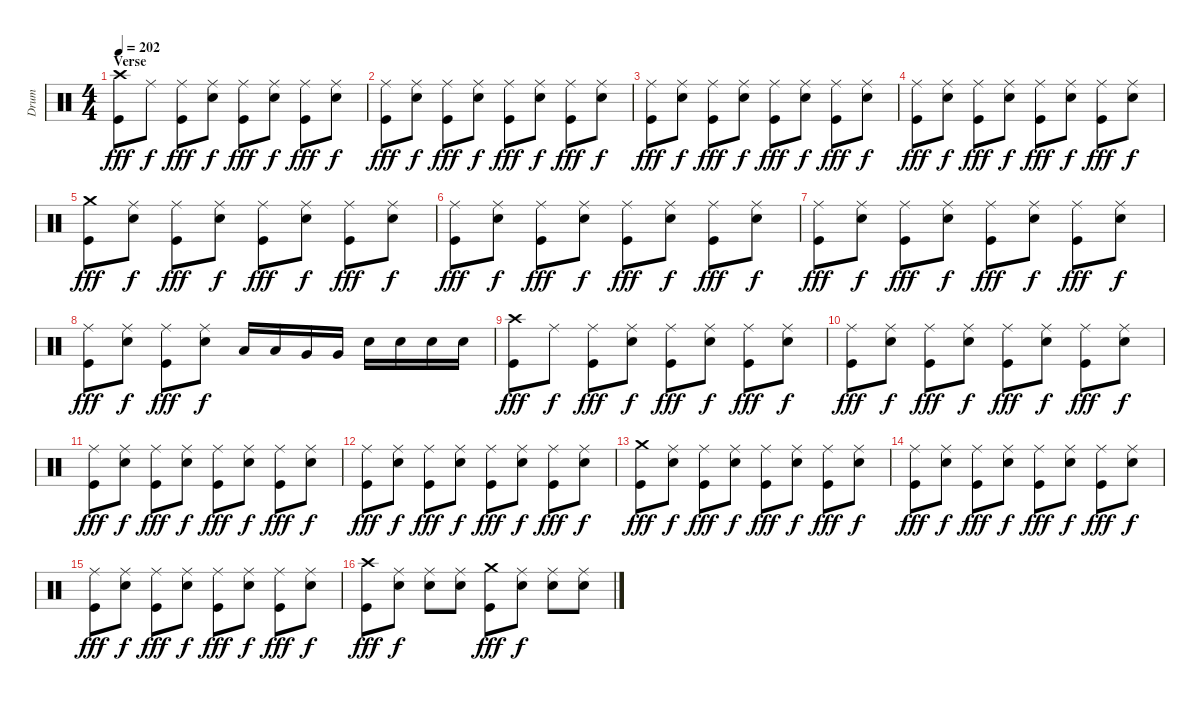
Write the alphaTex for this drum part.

\track ("Drum" "Drum") {instrument percussion}
\staff {score}
\articulation defaults
\ts (4 4)
\section ("" "Verse")
\tempo 202
\clef neutral
\ks c
("Crash high (hit)" "Kick (hit)").8{dy fff} "Ride (middle)".8{dy f} ("Ride (middle)" "Kick (hit)").8{dy fff} ("Ride (middle)" "Electric Snare (hit)").8{dy f} ("Ride (middle)" "Kick (hit)").8{dy fff} ("Ride (middle)" "Electric Snare (hit)").8{dy f} ("Ride (middle)" "Kick (hit)").8{dy fff} ("Ride (middle)" "Electric Snare (hit)").8{dy f} |
("Ride (middle)" "Kick (hit)").8{dy fff} ("Ride (middle)" "Electric Snare (hit)").8{dy f} ("Ride (middle)" "Kick (hit)").8{dy fff} ("Ride (middle)" "Electric Snare (hit)").8{dy f} ("Ride (middle)" "Kick (hit)").8{dy fff} ("Ride (middle)" "Electric Snare (hit)").8{dy f} ("Ride (middle)" "Kick (hit)").8{dy fff} ("Ride (middle)" "Electric Snare (hit)").8{dy f} |
("Ride (middle)" "Kick (hit)").8{dy fff} ("Ride (middle)" "Electric Snare (hit)").8{dy f} ("Ride (middle)" "Kick (hit)").8{dy fff} ("Ride (middle)" "Electric Snare (hit)").8{dy f} ("Ride (middle)" "Kick (hit)").8{dy fff} ("Ride (middle)" "Electric Snare (hit)").8{dy f} ("Ride (middle)" "Kick (hit)").8{dy fff} ("Ride (middle)" "Electric Snare (hit)").8{dy f} |
("Ride (middle)" "Kick (hit)").8{dy fff} ("Ride (middle)" "Electric Snare (hit)").8{dy f} ("Ride (middle)" "Kick (hit)").8{dy fff} ("Ride (middle)" "Electric Snare (hit)").8{dy f} ("Ride (middle)" "Kick (hit)").8{dy fff} ("Ride (middle)" "Electric Snare (hit)").8{dy f} ("Ride (middle)" "Kick (hit)").8{dy fff} ("Ride (middle)" "Electric Snare (hit)").8{dy f} |
("Crash medium (hit)" "Kick (hit)").8{dy fff} ("Ride (middle)" "Electric Snare (hit)").8{dy f} ("Ride (middle)" "Kick (hit)").8{dy fff} ("Ride (middle)" "Electric Snare (hit)").8{dy f} ("Ride (middle)" "Kick (hit)").8{dy fff} ("Ride (middle)" "Electric Snare (hit)").8{dy f} ("Ride (middle)" "Kick (hit)").8{dy fff} ("Ride (middle)" "Electric Snare (hit)").8{dy f} |
("Ride (middle)" "Kick (hit)").8{dy fff} ("Ride (middle)" "Electric Snare (hit)").8{dy f} ("Ride (middle)" "Kick (hit)").8{dy fff} ("Ride (middle)" "Electric Snare (hit)").8{dy f} ("Ride (middle)" "Kick (hit)").8{dy fff} ("Ride (middle)" "Electric Snare (hit)").8{dy f} ("Ride (middle)" "Kick (hit)").8{dy fff} ("Ride (middle)" "Electric Snare (hit)").8{dy f} |
("Ride (middle)" "Kick (hit)").8{dy fff} ("Ride (middle)" "Electric Snare (hit)").8{dy f} ("Ride (middle)" "Kick (hit)").8{dy fff} ("Ride (middle)" "Electric Snare (hit)").8{dy f} ("Ride (middle)" "Kick (hit)").8{dy fff} ("Ride (middle)" "Electric Snare (hit)").8{dy f} ("Ride (middle)" "Kick (hit)").8{dy fff} ("Ride (middle)" "Electric Snare (hit)").8{dy f} |
("Ride (middle)" "Kick (hit)").8{dy fff} ("Ride (middle)" "Electric Snare (hit)").8{dy f} ("Ride (middle)" "Kick (hit)").8{dy fff} ("Ride (middle)" "Electric Snare (hit)").8{dy f} "Low Tom (hit)".16 "Low Tom (hit)".16 "Very Low Tom (hit)".16 "Very Low Tom (hit)".16 "Electric Snare (hit)".16 "Electric Snare (hit)".16 "Electric Snare (hit)".16 "Electric Snare (hit)".16 |
("Crash high (hit)" "Kick (hit)").8{dy fff} "Ride (middle)".8{dy f} ("Ride (middle)" "Kick (hit)").8{dy fff} ("Ride (middle)" "Electric Snare (hit)").8{dy f} ("Ride (middle)" "Kick (hit)").8{dy fff} ("Ride (middle)" "Electric Snare (hit)").8{dy f} ("Ride (middle)" "Kick (hit)").8{dy fff} ("Ride (middle)" "Electric Snare (hit)").8{dy f} |
("Ride (middle)" "Kick (hit)").8{dy fff} ("Ride (middle)" "Electric Snare (hit)").8{dy f} ("Ride (middle)" "Kick (hit)").8{dy fff} ("Ride (middle)" "Electric Snare (hit)").8{dy f} ("Ride (middle)" "Kick (hit)").8{dy fff} ("Ride (middle)" "Electric Snare (hit)").8{dy f} ("Ride (middle)" "Kick (hit)").8{dy fff} ("Ride (middle)" "Electric Snare (hit)").8{dy f} |
("Ride (middle)" "Kick (hit)").8{dy fff} ("Ride (middle)" "Electric Snare (hit)").8{dy f} ("Ride (middle)" "Kick (hit)").8{dy fff} ("Ride (middle)" "Electric Snare (hit)").8{dy f} ("Ride (middle)" "Kick (hit)").8{dy fff} ("Ride (middle)" "Electric Snare (hit)").8{dy f} ("Ride (middle)" "Kick (hit)").8{dy fff} ("Ride (middle)" "Electric Snare (hit)").8{dy f} |
("Ride (middle)" "Kick (hit)").8{dy fff} ("Ride (middle)" "Electric Snare (hit)").8{dy f} ("Ride (middle)" "Kick (hit)").8{dy fff} ("Ride (middle)" "Electric Snare (hit)").8{dy f} ("Ride (middle)" "Kick (hit)").8{dy fff} ("Ride (middle)" "Electric Snare (hit)").8{dy f} ("Ride (middle)" "Kick (hit)").8{dy fff} ("Ride (middle)" "Electric Snare (hit)").8{dy f} |
("Crash medium (hit)" "Kick (hit)").8{dy fff} ("Ride (middle)" "Electric Snare (hit)").8{dy f} ("Ride (middle)" "Kick (hit)").8{dy fff} ("Ride (middle)" "Electric Snare (hit)").8{dy f} ("Ride (middle)" "Kick (hit)").8{dy fff} ("Ride (middle)" "Electric Snare (hit)").8{dy f} ("Ride (middle)" "Kick (hit)").8{dy fff} ("Ride (middle)" "Electric Snare (hit)").8{dy f} |
("Ride (middle)" "Kick (hit)").8{dy fff} ("Ride (middle)" "Electric Snare (hit)").8{dy f} ("Ride (middle)" "Kick (hit)").8{dy fff} ("Ride (middle)" "Electric Snare (hit)").8{dy f} ("Ride (middle)" "Kick (hit)").8{dy fff} ("Ride (middle)" "Electric Snare (hit)").8{dy f} ("Ride (middle)" "Kick (hit)").8{dy fff} ("Ride (middle)" "Electric Snare (hit)").8{dy f} |
("Ride (middle)" "Kick (hit)").8{dy fff} ("Ride (middle)" "Electric Snare (hit)").8{dy f} ("Ride (middle)" "Kick (hit)").8{dy fff} ("Ride (middle)" "Electric Snare (hit)").8{dy f} ("Ride (middle)" "Kick (hit)").8{dy fff} ("Ride (middle)" "Electric Snare (hit)").8{dy f} ("Ride (middle)" "Kick (hit)").8{dy fff} ("Ride (middle)" "Electric Snare (hit)").8{dy f} |
("Crash high (hit)" "Kick (hit)").8{dy fff} ("Ride (middle)" "Electric Snare (hit)").8{dy f} ("Ride (middle)" "Electric Snare (hit)").8 ("Ride (middle)" "Electric Snare (hit)").8 ("Crash medium (hit)" "Kick (hit)").8{dy fff} ("Ride (middle)" "Electric Snare (hit)").8{dy f} ("Ride (middle)" "Electric Snare (hit)").8 ("Ride (middle)" "Electric Snare (hit)").8
